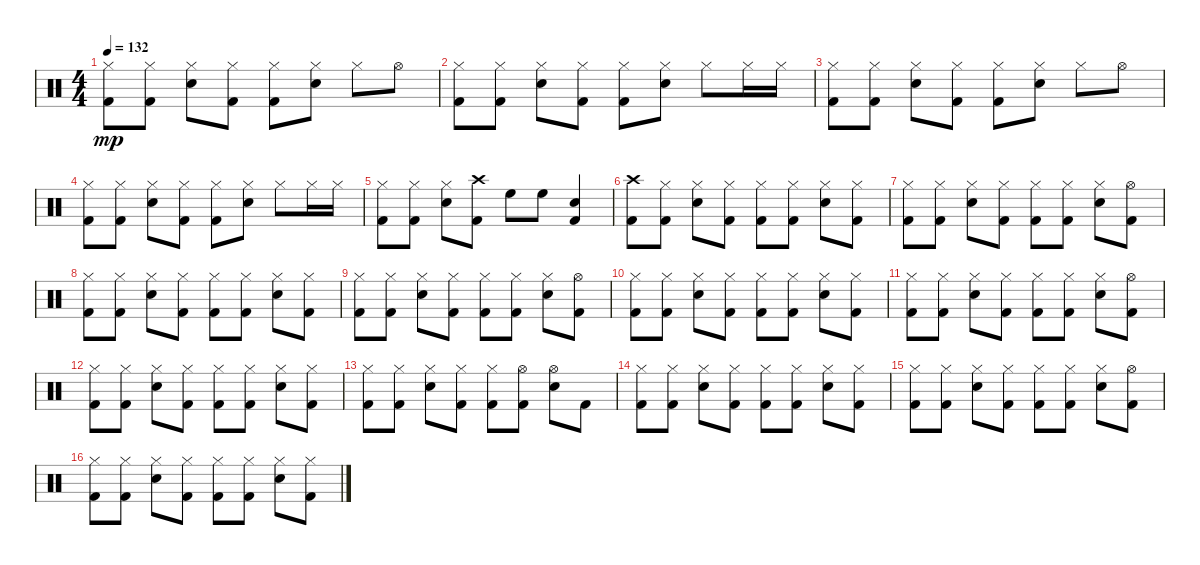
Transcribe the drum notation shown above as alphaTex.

\track "" {instrument percussion}
\staff {score}
\articulation defaults
\ts (4 4)
\tempo 132
\clef neutral
\ks c
("Hi-Hat (closed)" "Kick (hit) 2").8{dy mp} ("Hi-Hat (closed)" "Kick (hit) 2").8 ("Snare (hit) 2" "Hi-Hat (closed)").8 ("Hi-Hat (closed)" "Kick (hit) 2").8 ("Hi-Hat (closed)" "Kick (hit) 2").8 ("Snare (hit) 2" "Hi-Hat (closed)").8 "Hi-Hat (closed)".8 "Hi-Hat (open)".8 |
("Hi-Hat (closed)" "Kick (hit) 2").8 ("Hi-Hat (closed)" "Kick (hit) 2").8 ("Snare (hit) 2" "Hi-Hat (closed)").8 ("Hi-Hat (closed)" "Kick (hit) 2").8 ("Hi-Hat (closed)" "Kick (hit) 2").8 ("Snare (hit) 2" "Hi-Hat (closed)").8 "Hi-Hat (closed)".8 "Hi-Hat (closed)".16 "Hi-Hat (closed)".16 |
("Hi-Hat (closed)" "Kick (hit) 2").8 ("Hi-Hat (closed)" "Kick (hit) 2").8 ("Snare (hit) 2" "Hi-Hat (closed)").8 ("Hi-Hat (closed)" "Kick (hit) 2").8 ("Hi-Hat (closed)" "Kick (hit) 2").8 ("Snare (hit) 2" "Hi-Hat (closed)").8 "Hi-Hat (closed)".8 "Hi-Hat (open)".8 |
("Hi-Hat (closed)" "Kick (hit) 2").8 ("Hi-Hat (closed)" "Kick (hit) 2").8 ("Snare (hit) 2" "Hi-Hat (closed)").8 ("Hi-Hat (closed)" "Kick (hit) 2").8 ("Hi-Hat (closed)" "Kick (hit) 2").8 ("Snare (hit) 2" "Hi-Hat (closed)").8 "Hi-Hat (closed)".8 "Hi-Hat (closed)".16 "Hi-Hat (closed)".16 |
("Hi-Hat (closed)" "Kick (hit) 2").8 ("Hi-Hat (closed)" "Kick (hit) 2").8 ("Snare (hit) 2" "Hi-Hat (closed)").8 ("Crash high (hit)" "Kick (hit) 2").8 "High Floor Tom (hit)".8 "High Floor Tom (hit)".8 ("Snare (hit) 2" "Kick (hit) 2").4 |
("Crash high (hit)" "Kick (hit) 2").8 ("Hi-Hat (closed)" "Kick (hit) 2").8 ("Snare (hit) 2" "Hi-Hat (closed)").8 ("Hi-Hat (closed)" "Kick (hit) 2").8 ("Hi-Hat (closed)" "Kick (hit) 2").8 ("Hi-Hat (closed)" "Kick (hit) 2").8 ("Snare (hit) 2" "Hi-Hat (closed)").8 ("Hi-Hat (closed)" "Kick (hit) 2").8 |
("Hi-Hat (closed)" "Kick (hit) 2").8 ("Hi-Hat (closed)" "Kick (hit) 2").8 ("Snare (hit) 2" "Hi-Hat (closed)").8 ("Hi-Hat (closed)" "Kick (hit) 2").8 ("Hi-Hat (closed)" "Kick (hit) 2").8 ("Hi-Hat (closed)" "Kick (hit) 2").8 ("Snare (hit) 2" "Hi-Hat (closed)").8 ("Hi-Hat (open)" "Kick (hit) 2").8 |
("Hi-Hat (closed)" "Kick (hit) 2").8 ("Hi-Hat (closed)" "Kick (hit) 2").8 ("Snare (hit) 2" "Hi-Hat (closed)").8 ("Hi-Hat (closed)" "Kick (hit) 2").8 ("Hi-Hat (closed)" "Kick (hit) 2").8 ("Hi-Hat (closed)" "Kick (hit) 2").8 ("Snare (hit) 2" "Hi-Hat (closed)").8 ("Hi-Hat (closed)" "Kick (hit) 2").8 |
("Hi-Hat (closed)" "Kick (hit) 2").8 ("Hi-Hat (closed)" "Kick (hit) 2").8 ("Snare (hit) 2" "Hi-Hat (closed)").8 ("Hi-Hat (closed)" "Kick (hit) 2").8 ("Hi-Hat (closed)" "Kick (hit) 2").8 ("Hi-Hat (closed)" "Kick (hit) 2").8 ("Snare (hit) 2" "Hi-Hat (closed)").8 ("Hi-Hat (open)" "Kick (hit) 2").8 |
("Hi-Hat (closed)" "Kick (hit) 2").8 ("Hi-Hat (closed)" "Kick (hit) 2").8 ("Snare (hit) 2" "Hi-Hat (closed)").8 ("Hi-Hat (closed)" "Kick (hit) 2").8 ("Hi-Hat (closed)" "Kick (hit) 2").8 ("Hi-Hat (closed)" "Kick (hit) 2").8 ("Snare (hit) 2" "Hi-Hat (closed)").8 ("Hi-Hat (closed)" "Kick (hit) 2").8 |
("Hi-Hat (closed)" "Kick (hit) 2").8 ("Hi-Hat (closed)" "Kick (hit) 2").8 ("Snare (hit) 2" "Hi-Hat (closed)").8 ("Hi-Hat (closed)" "Kick (hit) 2").8 ("Hi-Hat (closed)" "Kick (hit) 2").8 ("Hi-Hat (closed)" "Kick (hit) 2").8 ("Snare (hit) 2" "Hi-Hat (closed)").8 ("Hi-Hat (open)" "Kick (hit) 2").8 |
("Hi-Hat (closed)" "Kick (hit) 2").8 ("Hi-Hat (closed)" "Kick (hit) 2").8 ("Snare (hit) 2" "Hi-Hat (closed)").8 ("Hi-Hat (closed)" "Kick (hit) 2").8 ("Hi-Hat (closed)" "Kick (hit) 2").8 ("Hi-Hat (closed)" "Kick (hit) 2").8 ("Snare (hit) 2" "Hi-Hat (closed)").8 ("Hi-Hat (closed)" "Kick (hit) 2").8 |
("Hi-Hat (closed)" "Kick (hit) 2").8 ("Hi-Hat (closed)" "Kick (hit) 2").8 ("Snare (hit) 2" "Hi-Hat (closed)").8 ("Hi-Hat (closed)" "Kick (hit) 2").8 ("Hi-Hat (closed)" "Kick (hit) 2").8 ("Hi-Hat (open)" "Kick (hit) 2").8 ("Snare (hit) 2" "Hi-Hat (open)").8 "Kick (hit) 2".8 |
("Hi-Hat (closed)" "Kick (hit) 2").8 ("Hi-Hat (closed)" "Kick (hit) 2").8 ("Snare (hit) 2" "Hi-Hat (closed)").8 ("Hi-Hat (closed)" "Kick (hit) 2").8 ("Hi-Hat (closed)" "Kick (hit) 2").8 ("Hi-Hat (closed)" "Kick (hit) 2").8 ("Snare (hit) 2" "Hi-Hat (closed)").8 ("Hi-Hat (closed)" "Kick (hit) 2").8 |
("Hi-Hat (closed)" "Kick (hit) 2").8 ("Hi-Hat (closed)" "Kick (hit) 2").8 ("Snare (hit) 2" "Hi-Hat (closed)").8 ("Hi-Hat (closed)" "Kick (hit) 2").8 ("Hi-Hat (closed)" "Kick (hit) 2").8 ("Hi-Hat (closed)" "Kick (hit) 2").8 ("Snare (hit) 2" "Hi-Hat (closed)").8 ("Hi-Hat (open)" "Kick (hit) 2").8 |
("Hi-Hat (closed)" "Kick (hit) 2").8 ("Hi-Hat (closed)" "Kick (hit) 2").8 ("Snare (hit) 2" "Hi-Hat (closed)").8 ("Hi-Hat (closed)" "Kick (hit) 2").8 ("Hi-Hat (closed)" "Kick (hit) 2").8 ("Hi-Hat (closed)" "Kick (hit) 2").8 ("Snare (hit) 2" "Hi-Hat (closed)").8 ("Hi-Hat (closed)" "Kick (hit) 2").8
